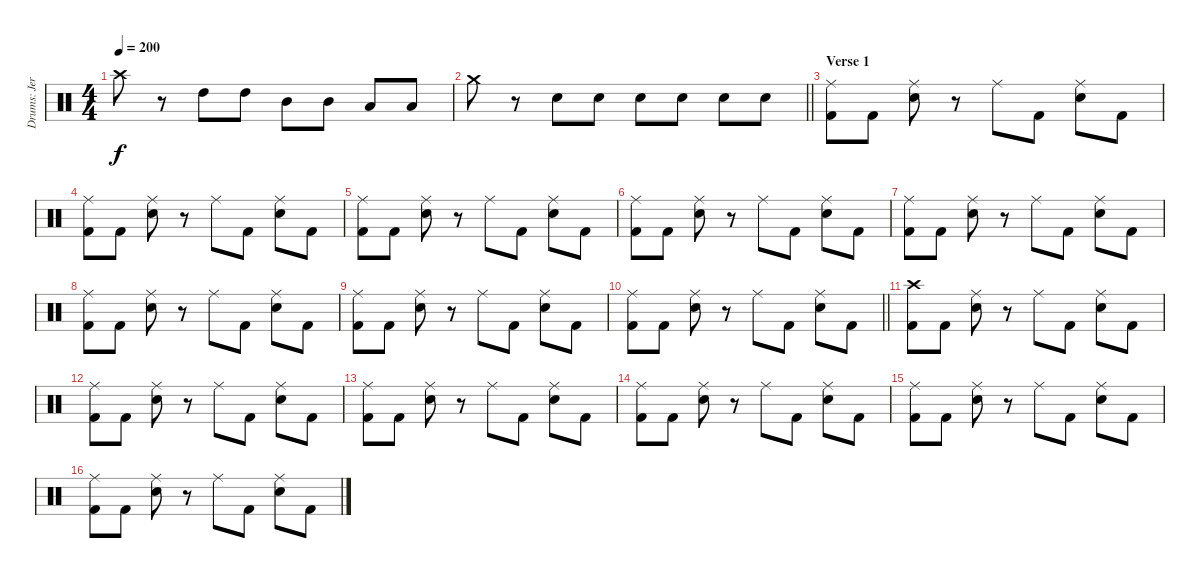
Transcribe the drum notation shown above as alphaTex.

\track ("Drums: Jere Luokkamäki" "Drums: Jer") {instrument percussion}
\staff {score}
\articulation defaults
\ts (4 4)
\tempo 200
\clef neutral
\ks aminor "Crash high (hit)".8{dy f}
r.8 "High Tom (hit)".8 "High Tom (hit)".8 "Mid Tom (hit)".8 "Mid Tom (hit)".8 "Low Tom (hit)".8 "Low Tom (hit)".8 |
\barLineRight lightlight "Crash medium (hit)".8
r.8 "Electric Snare (hit)".8 "Electric Snare (hit)".8 "Electric Snare (hit)".8 "Electric Snare (hit)".8 "Electric Snare (hit)".8 "Electric Snare (hit)".8 |
\section ("" "Verse 1")
("Ride (middle)" "Kick (hit) 2").8 "Kick (hit) 2".8 ("Ride (middle)" "Electric Snare (hit)").8 r.8 "Ride (middle)".8 "Kick (hit) 2".8 ("Ride (middle)" "Electric Snare (hit)").8 "Kick (hit) 2".8 |
("Ride (middle)" "Kick (hit) 2").8 "Kick (hit) 2".8 ("Ride (middle)" "Electric Snare (hit)").8 r.8 "Ride (middle)".8 "Kick (hit) 2".8 ("Ride (middle)" "Electric Snare (hit)").8 "Kick (hit) 2".8 |
("Ride (middle)" "Kick (hit) 2").8 "Kick (hit) 2".8 ("Ride (middle)" "Electric Snare (hit)").8 r.8 "Ride (middle)".8 "Kick (hit) 2".8 ("Ride (middle)" "Electric Snare (hit)").8 "Kick (hit) 2".8 |
("Ride (middle)" "Kick (hit) 2").8 "Kick (hit) 2".8 ("Ride (middle)" "Electric Snare (hit)").8 r.8 "Ride (middle)".8 "Kick (hit) 2".8 ("Ride (middle)" "Electric Snare (hit)").8 "Kick (hit) 2".8 |
("Ride (middle)" "Kick (hit) 2").8 "Kick (hit) 2".8 ("Ride (middle)" "Electric Snare (hit)").8 r.8 "Ride (middle)".8 "Kick (hit) 2".8 ("Ride (middle)" "Electric Snare (hit)").8 "Kick (hit) 2".8 |
("Ride (middle)" "Kick (hit) 2").8 "Kick (hit) 2".8 ("Ride (middle)" "Electric Snare (hit)").8 r.8 "Ride (middle)".8 "Kick (hit) 2".8 ("Ride (middle)" "Electric Snare (hit)").8 "Kick (hit) 2".8 |
("Ride (middle)" "Kick (hit) 2").8 "Kick (hit) 2".8 ("Ride (middle)" "Electric Snare (hit)").8 r.8 "Ride (middle)".8 "Kick (hit) 2".8 ("Ride (middle)" "Electric Snare (hit)").8 "Kick (hit) 2".8 |
\barLineRight lightlight
("Ride (middle)" "Kick (hit) 2").8 "Kick (hit) 2".8 ("Ride (middle)" "Electric Snare (hit)").8 r.8 "Ride (middle)".8 "Kick (hit) 2".8 ("Ride (middle)" "Electric Snare (hit)").8 "Kick (hit) 2".8 |
("Crash high (hit)" "Kick (hit) 2").8 "Kick (hit) 2".8 ("Ride (middle)" "Electric Snare (hit)").8 r.8 "Ride (middle)".8 "Kick (hit) 2".8 ("Ride (middle)" "Electric Snare (hit)").8 "Kick (hit) 2".8 |
("Ride (middle)" "Kick (hit) 2").8 "Kick (hit) 2".8 ("Ride (middle)" "Electric Snare (hit)").8 r.8 "Ride (middle)".8 "Kick (hit) 2".8 ("Ride (middle)" "Electric Snare (hit)").8 "Kick (hit) 2".8 |
("Ride (middle)" "Kick (hit) 2").8 "Kick (hit) 2".8 ("Ride (middle)" "Electric Snare (hit)").8 r.8 "Ride (middle)".8 "Kick (hit) 2".8 ("Ride (middle)" "Electric Snare (hit)").8 "Kick (hit) 2".8 |
("Ride (middle)" "Kick (hit) 2").8 "Kick (hit) 2".8 ("Ride (middle)" "Electric Snare (hit)").8 r.8 "Ride (middle)".8 "Kick (hit) 2".8 ("Ride (middle)" "Electric Snare (hit)").8 "Kick (hit) 2".8 |
("Ride (middle)" "Kick (hit) 2").8 "Kick (hit) 2".8 ("Ride (middle)" "Electric Snare (hit)").8 r.8 "Ride (middle)".8 "Kick (hit) 2".8 ("Ride (middle)" "Electric Snare (hit)").8 "Kick (hit) 2".8 |
("Ride (middle)" "Kick (hit) 2").8 "Kick (hit) 2".8 ("Ride (middle)" "Electric Snare (hit)").8 r.8 "Ride (middle)".8 "Kick (hit) 2".8 ("Ride (middle)" "Electric Snare (hit)").8 "Kick (hit) 2".8
